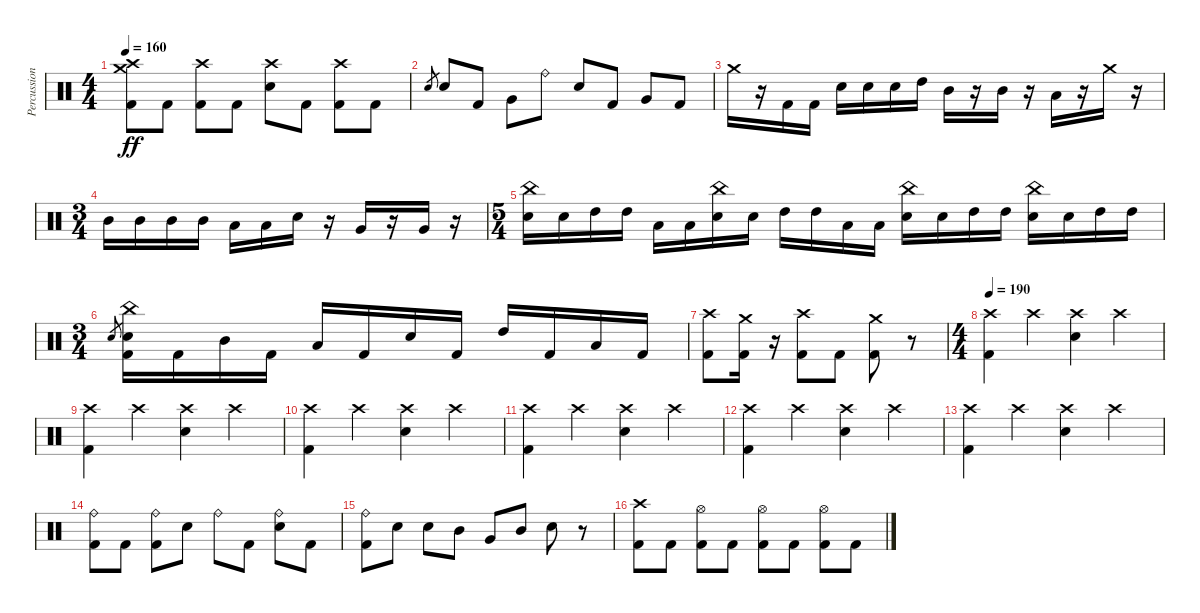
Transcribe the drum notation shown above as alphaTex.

\track ("Percussion" "Percussion") {instrument percussion}
\staff {score}
\articulation defaults
\ts (4 4)
\tempo 160
\clef neutral
\ks c
("Crash high (hit)" "Crash medium (hit)" "Kick (hit) 2").8{dy ff} "Kick (hit) 2".8 ("Crash high (hit)" "Kick (hit) 2").8 "Kick (hit) 2".8 ("Crash high (hit)" "Electric Snare (hit)").8 "Kick (hit) 2".8 ("Crash high (hit)" "Kick (hit) 2").8 "Kick (hit) 2".8 |
"Electric Snare (hit)".8{gr} "Electric Snare (hit)".8 "Kick (hit) 2".8 "Very Low Tom (hit)".8 "Ride (bell)".8 "Electric Snare (hit)".8 "Kick (hit) 2".8 "Very Low Tom (hit)".8 "Kick (hit) 2".8 |
"Crash medium (hit)".16 r.16 "Kick (hit) 2".16 "Kick (hit) 2".16 "Electric Snare (hit)".16 "Electric Snare (hit)".16 "Electric Snare (hit)".16 "High Tom (hit)".16 "Mid Tom (hit)".16 r.16 "Mid Tom (hit)".16 r.16 "Low Tom (hit)".16 r.16 "Crash medium (hit)".16 r.16 |
\ts (3 4)
"Mid Tom (hit)".16 "Mid Tom (hit)".16 "Mid Tom (hit)".16 "Mid Tom (hit)".16 "Low Tom (hit)".16 "Low Tom (hit)".16 "Electric Snare (hit)".16 r.16 "Very Low Tom (hit)".16 r.16 "Very Low Tom (hit)".16 r.16 |
\ts (5 4)
("China (hit)" "Electric Snare (hit)").16 "Electric Snare (hit)".16 "High Tom (hit)".16 "High Tom (hit)".16 "Low Tom (hit)".16 "Low Tom (hit)".16 ("China (hit)" "Electric Snare (hit)").16 "Electric Snare (hit)".16 "High Tom (hit)".16 "High Tom (hit)".16 "Low Tom (hit)".16 "Low Tom (hit)".16 ("China (hit)" "Electric Snare (hit)").16 "Electric Snare (hit)".16 "High Tom (hit)".16 "High Tom (hit)".16 ("China (hit)" "Electric Snare (hit)").16 "Electric Snare (hit)".16 "High Tom (hit)".16 "High Tom (hit)".16 |
\ts (3 4)
"Electric Snare (hit)".8{gr} ("China (hit)" "Electric Snare (hit)" "Kick (hit) 2").16 "Kick (hit) 2".16 "Mid Tom (hit)".16 "Kick (hit) 2".16 "Low Tom (hit)".16 "Kick (hit) 2".16 "Electric Snare (hit)".16 "Kick (hit) 2".16 "High Tom (hit)".16 "Kick (hit) 2".16 "Low Tom (hit)".16 "Kick (hit) 2".16 |
("Crash high (hit)" "Kick (hit) 2").8 ("Crash medium (hit)" "Kick (hit) 2").16 r.16 ("Crash high (hit)" "Kick (hit) 2").8 "Kick (hit) 2".8 ("Crash medium (hit)" "Kick (hit) 2").8 r.8 |
\ts (4 4)
\tempo 190
("Crash high (hit)" "Kick (hit) 2").4 "Crash high (hit)".4 ("Crash high (hit)" "Electric Snare (hit)").4 "Crash high (hit)".4 |
("Crash high (hit)" "Kick (hit) 2").4 "Crash high (hit)".4 ("Crash high (hit)" "Electric Snare (hit)").4 "Crash high (hit)".4 |
("Crash high (hit)" "Kick (hit) 2").4 "Crash high (hit)".4 ("Crash high (hit)" "Electric Snare (hit)").4 "Crash high (hit)".4 |
("Crash high (hit)" "Kick (hit) 2").4 "Crash high (hit)".4 ("Crash high (hit)" "Electric Snare (hit)").4 "Crash high (hit)".4 |
("Crash high (hit)" "Kick (hit) 2").4 "Crash high (hit)".4 ("Crash high (hit)" "Electric Snare (hit)").4 "Crash high (hit)".4 |
("Crash high (hit)" "Kick (hit) 2").4 "Crash high (hit)".4 ("Crash high (hit)" "Electric Snare (hit)").4 "Crash high (hit)".4 |
("Ride (bell)" "Kick (hit) 2").8 "Kick (hit) 2".8 ("Ride (bell)" "Kick (hit) 2").8 "Electric Snare (hit)".8 "Ride (bell)".8 "Kick (hit) 2".8 ("Ride (bell)" "Electric Snare (hit)").8 "Kick (hit) 2".8 |
("Ride (bell)" "Kick (hit) 2").8 "Electric Snare (hit)".8 "Electric Snare (hit)".8 "Mid Tom (hit)".8 "Very Low Tom (hit)".8 "Mid Tom (hit)".8 "Electric Snare (hit)".8 r.8 |
("Crash high (hit)" "Kick (hit) 2").8 "Kick (hit) 2".8 ("Hi-Hat (open)" "Kick (hit) 2").8 "Kick (hit) 2".8 ("Hi-Hat (open)" "Kick (hit) 2").8 "Kick (hit) 2".8 ("Hi-Hat (open)" "Kick (hit) 2").8 "Kick (hit) 2".8
